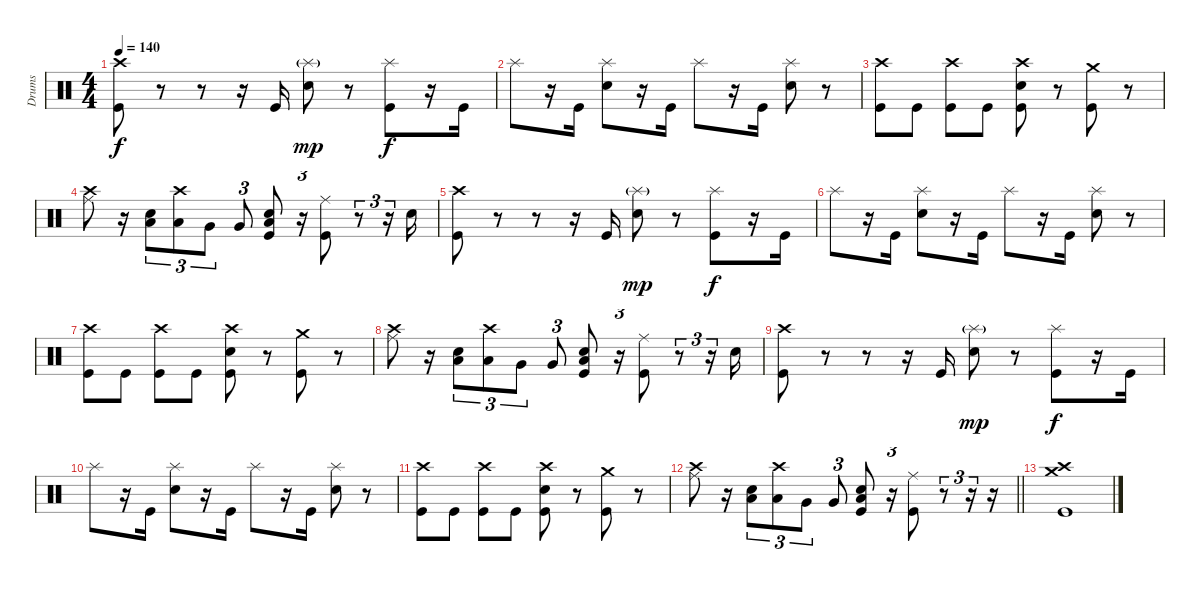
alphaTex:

\track ("Drums" "Drums") {instrument percussion}
\staff {score}
\articulation defaults
\ts (4 4)
\tempo 140
\clef neutral
\ks c
("Crash high (hit)" "Kick (hit)").8{dy f} r.8 r.8 r.16 "Kick (hit)".16 ("Splash (hit)"{g} "Electric Snare (hit)").8{dy mp} r.8 ("Splash (hit)" "Kick (hit)").8{dy f} r.16 "Kick (hit)".16 |
"Splash (hit)".8 r.16 "Kick (hit)".16 ("Splash (hit)" "Electric Snare (hit)").8 r.16 "Kick (hit)".16 "Splash (hit)".8 r.16 "Kick (hit)".16 ("Splash (hit)" "Electric Snare (hit)").8 r.8 |
("Crash high (hit)" "Kick (hit)").8 "Kick (hit)".8 ("Crash high (hit)" "Kick (hit)").8 "Kick (hit)".8 ("Crash high (hit)" "Electric Snare (hit)" "Kick (hit)").8 r.8 ("Crash medium (hit)" "Kick (hit)").8 r.8 |
("Crash high (hit)" "Ride (middle)").8 r.16 ("Low Tom (hit)" "Electric Snare (hit)").8{tu (3 2)} ("Crash high (hit)" "Low Tom (hit)").8{tu (3 2)} "Very Low Tom (hit)".8{tu (3 2)} "Very Low Tom (hit)".8{tu (3 2)} ("Low Tom (hit)" "Snare (hit) 2" "Kick (hit)").8 r.16{tu (3 2)} ("Ride (middle)" "Kick (hit)").8 r.8{tu (3 2)} r.16{tu (3 2)} "Electric Snare (hit)".16 |
("Crash high (hit)" "Kick (hit)").8 r.8 r.8 r.16 "Kick (hit)".16 ("Splash (hit)"{g} "Electric Snare (hit)").8{dy mp} r.8 ("Splash (hit)" "Kick (hit)").8{dy f} r.16 "Kick (hit)".16 |
"Splash (hit)".8 r.16 "Kick (hit)".16 ("Splash (hit)" "Electric Snare (hit)").8 r.16 "Kick (hit)".16 "Splash (hit)".8 r.16 "Kick (hit)".16 ("Splash (hit)" "Electric Snare (hit)").8 r.8 |
("Crash high (hit)" "Kick (hit)").8 "Kick (hit)".8 ("Crash high (hit)" "Kick (hit)").8 "Kick (hit)".8 ("Crash high (hit)" "Electric Snare (hit)" "Kick (hit)").8 r.8 ("Crash medium (hit)" "Kick (hit)").8 r.8 |
("Crash high (hit)" "Ride (middle)").8 r.16 ("Low Tom (hit)" "Electric Snare (hit)").8{tu (3 2)} ("Crash high (hit)" "Low Tom (hit)").8{tu (3 2)} "Very Low Tom (hit)".8{tu (3 2)} "Very Low Tom (hit)".8{tu (3 2)} ("Low Tom (hit)" "Snare (hit) 2" "Kick (hit)").8 r.16{tu (3 2)} ("Ride (middle)" "Kick (hit)").8 r.8{tu (3 2)} r.16{tu (3 2)} "Electric Snare (hit)".16 |
("Crash high (hit)" "Kick (hit)").8 r.8 r.8 r.16 "Kick (hit)".16 ("Splash (hit)"{g} "Electric Snare (hit)").8{dy mp} r.8 ("Splash (hit)" "Kick (hit)").8{dy f} r.16 "Kick (hit)".16 |
"Splash (hit)".8 r.16 "Kick (hit)".16 ("Splash (hit)" "Electric Snare (hit)").8 r.16 "Kick (hit)".16 "Splash (hit)".8 r.16 "Kick (hit)".16 ("Splash (hit)" "Electric Snare (hit)").8 r.8 |
("Crash high (hit)" "Kick (hit)").8 "Kick (hit)".8 ("Crash high (hit)" "Kick (hit)").8 "Kick (hit)".8 ("Crash high (hit)" "Electric Snare (hit)" "Kick (hit)").8 r.8 ("Crash medium (hit)" "Kick (hit)").8 r.8 |
\barLineRight lightlight
("Crash high (hit)" "Ride (middle)").8 r.16 ("Low Tom (hit)" "Electric Snare (hit)").8{tu (3 2)} ("Crash high (hit)" "Low Tom (hit)").8{tu (3 2)} "Very Low Tom (hit)".8{tu (3 2)} "Very Low Tom (hit)".8{tu (3 2)} ("Low Tom (hit)" "Snare (hit) 2" "Kick (hit)").8 r.16{tu (3 2)} ("Ride (middle)" "Kick (hit)").8 r.8{tu (3 2)} r.16{tu (3 2)} r.16 |
("Crash high (hit)" "Crash medium (hit)" "Kick (hit)").1
